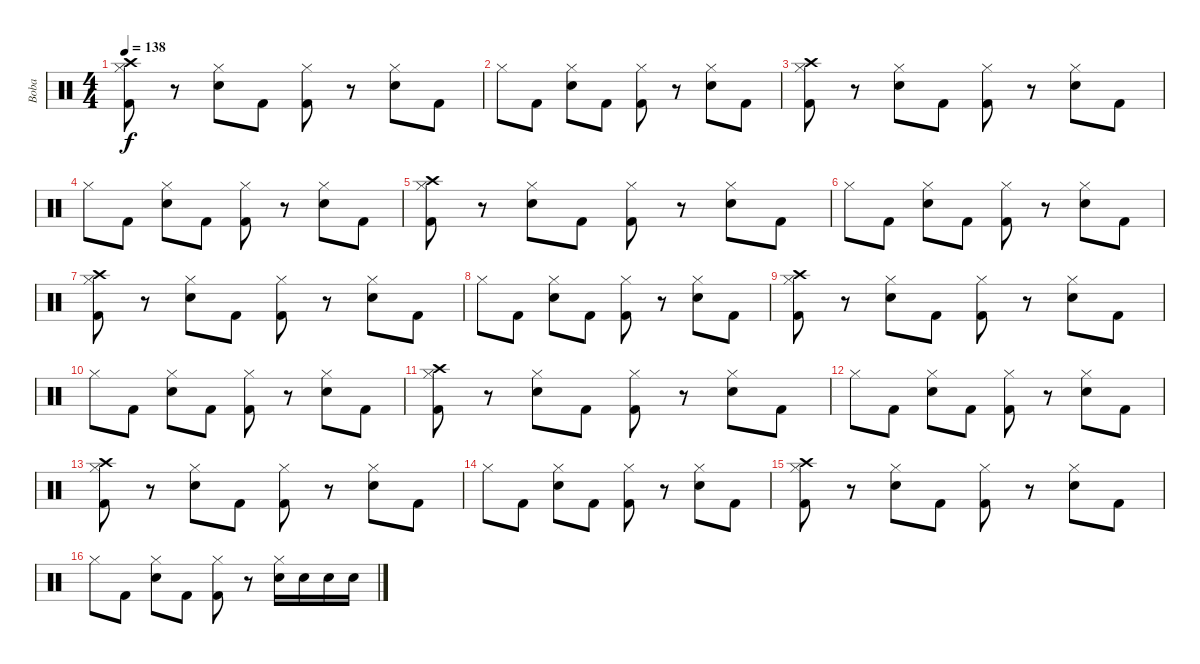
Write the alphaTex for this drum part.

\track ("Boba" "Boba") {instrument percussion}
\staff {score}
\articulation defaults
\ts (4 4)
\tempo 138
\clef neutral
\ks c
("Crash high (hit)" "Hi-Hat (closed)" "Kick (hit) 2").8{dy f} r.8 ("Hi-Hat (closed)" "Electric Snare (hit)").8 "Kick (hit) 2".8 ("Hi-Hat (closed)" "Kick (hit) 2").8 r.8 ("Hi-Hat (closed)" "Electric Snare (hit)").8 "Kick (hit) 2".8 |
"Hi-Hat (closed)".8 "Kick (hit) 2".8 ("Hi-Hat (closed)" "Electric Snare (hit)").8 "Kick (hit) 2".8 ("Hi-Hat (closed)" "Kick (hit) 2").8 r.8 ("Hi-Hat (closed)" "Electric Snare (hit)").8 "Kick (hit) 2".8 |
("Crash high (hit)" "Hi-Hat (closed)" "Kick (hit) 2").8 r.8 ("Hi-Hat (closed)" "Electric Snare (hit)").8 "Kick (hit) 2".8 ("Hi-Hat (closed)" "Kick (hit) 2").8 r.8 ("Hi-Hat (closed)" "Electric Snare (hit)").8 "Kick (hit) 2".8 |
"Hi-Hat (closed)".8 "Kick (hit) 2".8 ("Hi-Hat (closed)" "Electric Snare (hit)").8 "Kick (hit) 2".8 ("Hi-Hat (closed)" "Kick (hit) 2").8 r.8 ("Hi-Hat (closed)" "Electric Snare (hit)").8 "Kick (hit) 2".8 |
("Crash high (hit)" "Hi-Hat (closed)" "Kick (hit) 2").8 r.8 ("Hi-Hat (closed)" "Electric Snare (hit)").8 "Kick (hit) 2".8 ("Hi-Hat (closed)" "Kick (hit) 2").8 r.8 ("Hi-Hat (closed)" "Electric Snare (hit)").8 "Kick (hit) 2".8 |
"Hi-Hat (closed)".8 "Kick (hit) 2".8 ("Hi-Hat (closed)" "Electric Snare (hit)").8 "Kick (hit) 2".8 ("Hi-Hat (closed)" "Kick (hit) 2").8 r.8 ("Hi-Hat (closed)" "Electric Snare (hit)").8 "Kick (hit) 2".8 |
("Crash high (hit)" "Hi-Hat (closed)" "Kick (hit) 2").8 r.8 ("Hi-Hat (closed)" "Electric Snare (hit)").8 "Kick (hit) 2".8 ("Hi-Hat (closed)" "Kick (hit) 2").8 r.8 ("Hi-Hat (closed)" "Electric Snare (hit)").8 "Kick (hit) 2".8 |
"Hi-Hat (closed)".8 "Kick (hit) 2".8 ("Hi-Hat (closed)" "Electric Snare (hit)").8 "Kick (hit) 2".8 ("Hi-Hat (closed)" "Kick (hit) 2").8 r.8 ("Hi-Hat (closed)" "Electric Snare (hit)").8 "Kick (hit) 2".8 |
("Crash high (hit)" "Hi-Hat (closed)" "Kick (hit) 2").8 r.8 ("Hi-Hat (closed)" "Electric Snare (hit)").8 "Kick (hit) 2".8 ("Hi-Hat (closed)" "Kick (hit) 2").8 r.8 ("Hi-Hat (closed)" "Electric Snare (hit)").8 "Kick (hit) 2".8 |
"Hi-Hat (closed)".8 "Kick (hit) 2".8 ("Hi-Hat (closed)" "Electric Snare (hit)").8 "Kick (hit) 2".8 ("Hi-Hat (closed)" "Kick (hit) 2").8 r.8 ("Hi-Hat (closed)" "Electric Snare (hit)").8 "Kick (hit) 2".8 |
("Crash high (hit)" "Hi-Hat (closed)" "Kick (hit) 2").8 r.8 ("Hi-Hat (closed)" "Electric Snare (hit)").8 "Kick (hit) 2".8 ("Hi-Hat (closed)" "Kick (hit) 2").8 r.8 ("Hi-Hat (closed)" "Electric Snare (hit)").8 "Kick (hit) 2".8 |
"Hi-Hat (closed)".8 "Kick (hit) 2".8 ("Hi-Hat (closed)" "Electric Snare (hit)").8 "Kick (hit) 2".8 ("Hi-Hat (closed)" "Kick (hit) 2").8 r.8 ("Hi-Hat (closed)" "Electric Snare (hit)").8 "Kick (hit) 2".8 |
("Crash high (hit)" "Hi-Hat (closed)" "Kick (hit) 2").8 r.8 ("Hi-Hat (closed)" "Electric Snare (hit)").8 "Kick (hit) 2".8 ("Hi-Hat (closed)" "Kick (hit) 2").8 r.8 ("Hi-Hat (closed)" "Electric Snare (hit)").8 "Kick (hit) 2".8 |
"Hi-Hat (closed)".8 "Kick (hit) 2".8 ("Hi-Hat (closed)" "Electric Snare (hit)").8 "Kick (hit) 2".8 ("Hi-Hat (closed)" "Kick (hit) 2").8 r.8 ("Hi-Hat (closed)" "Electric Snare (hit)").8 "Kick (hit) 2".8 |
("Crash high (hit)" "Hi-Hat (closed)" "Kick (hit) 2").8 r.8 ("Hi-Hat (closed)" "Electric Snare (hit)").8 "Kick (hit) 2".8 ("Hi-Hat (closed)" "Kick (hit) 2").8 r.8 ("Hi-Hat (closed)" "Electric Snare (hit)").8 "Kick (hit) 2".8 |
"Hi-Hat (closed)".8 "Kick (hit) 2".8 ("Hi-Hat (closed)" "Electric Snare (hit)").8 "Kick (hit) 2".8 ("Hi-Hat (closed)" "Kick (hit) 2").8 r.8 ("Hi-Hat (closed)" "Electric Snare (hit)").16 "Electric Snare (hit)".16 "Electric Snare (hit)".16 "Electric Snare (hit)".16
